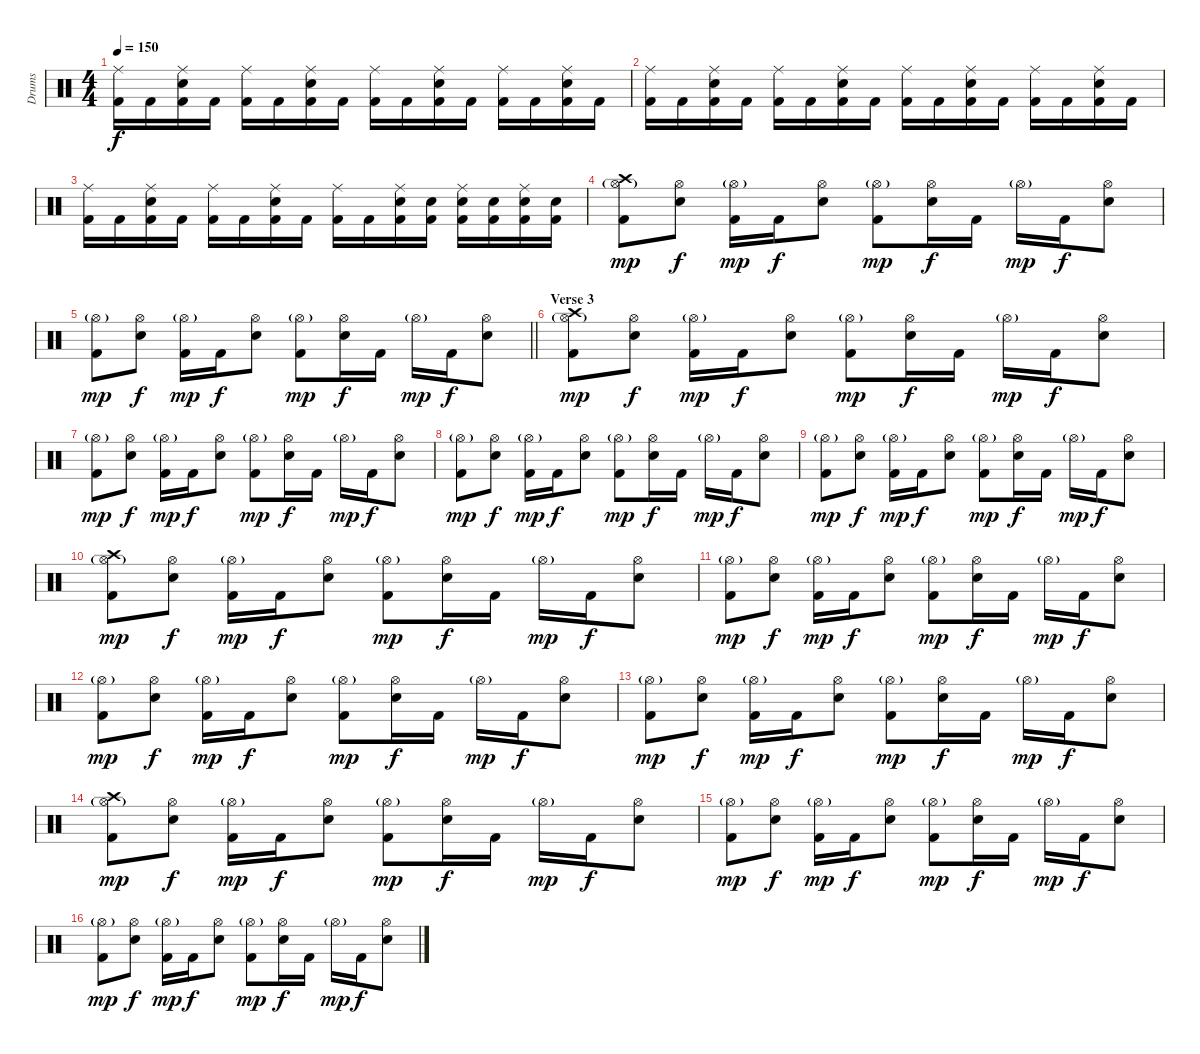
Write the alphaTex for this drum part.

\track ("Drums" "Drums") {instrument percussion}
\staff {score}
\articulation defaults
\ts (4 4)
\tempo 150
\clef neutral
\ks c
("Ride (middle)" "Kick (hit) 2").16{dy f} "Kick (hit) 2".16 ("Ride (middle)" "Snare (hit) 2" "Kick (hit) 2").16 "Kick (hit) 2".16 ("Ride (middle)" "Kick (hit) 2").16 "Kick (hit) 2".16 ("Ride (middle)" "Snare (hit) 2" "Kick (hit) 2").16 "Kick (hit) 2".16 ("Ride (middle)" "Kick (hit) 2").16 "Kick (hit) 2".16 ("Ride (middle)" "Snare (hit) 2" "Kick (hit) 2").16 "Kick (hit) 2".16 ("Ride (middle)" "Kick (hit) 2").16 "Kick (hit) 2".16 ("Ride (middle)" "Snare (hit) 2" "Kick (hit) 2").16 "Kick (hit) 2".16 |
("Ride (middle)" "Kick (hit) 2").16 "Kick (hit) 2".16 ("Ride (middle)" "Snare (hit) 2" "Kick (hit) 2").16 "Kick (hit) 2".16 ("Ride (middle)" "Kick (hit) 2").16 "Kick (hit) 2".16 ("Ride (middle)" "Snare (hit) 2" "Kick (hit) 2").16 "Kick (hit) 2".16 ("Ride (middle)" "Kick (hit) 2").16 "Kick (hit) 2".16 ("Ride (middle)" "Snare (hit) 2" "Kick (hit) 2").16 "Kick (hit) 2".16 ("Ride (middle)" "Kick (hit) 2").16 "Kick (hit) 2".16 ("Ride (middle)" "Snare (hit) 2" "Kick (hit) 2").16 "Kick (hit) 2".16 |
("Ride (middle)" "Kick (hit) 2").16 "Kick (hit) 2".16 ("Ride (middle)" "Snare (hit) 2" "Kick (hit) 2").16 "Kick (hit) 2".16 ("Ride (middle)" "Kick (hit) 2").16 "Kick (hit) 2".16 ("Ride (middle)" "Snare (hit) 2" "Kick (hit) 2").16 "Kick (hit) 2".16 ("Ride (middle)" "Kick (hit) 2").16 "Kick (hit) 2".16 ("Ride (middle)" "Snare (hit) 2" "Kick (hit) 2").16 ("Snare (hit) 2" "Kick (hit) 2").16 ("Ride (middle)" "Snare (hit) 2" "Kick (hit) 2").16 ("Snare (hit) 2" "Kick (hit) 2").16 ("Ride (middle)" "Snare (hit) 2" "Kick (hit) 2").16 ("Snare (hit) 2" "Kick (hit) 2").16 |
("Crash high (hit)" "Hi-Hat (open)"{g} "Kick (hit) 2").8{dy mp} ("Hi-Hat (open)" "Snare (hit) 2").8{dy f} ("Hi-Hat (open)"{g} "Kick (hit) 2").16{dy mp} "Kick (hit) 2".16{dy f} ("Hi-Hat (open)" "Snare (hit) 2").8 ("Hi-Hat (open)"{g} "Kick (hit) 2").8{dy mp} ("Hi-Hat (open)" "Snare (hit) 2").16{dy f} "Kick (hit) 2".16 "Hi-Hat (open)"{g}.16{dy mp} "Kick (hit) 2".16{dy f} ("Hi-Hat (open)" "Snare (hit) 2").8 |
\barLineRight lightlight
("Hi-Hat (open)"{g} "Kick (hit) 2").8{dy mp} ("Hi-Hat (open)" "Snare (hit) 2").8{dy f} ("Hi-Hat (open)"{g} "Kick (hit) 2").16{dy mp} "Kick (hit) 2".16{dy f} ("Hi-Hat (open)" "Snare (hit) 2").8 ("Hi-Hat (open)"{g} "Kick (hit) 2").8{dy mp} ("Hi-Hat (open)" "Snare (hit) 2").16{dy f} "Kick (hit) 2".16 "Hi-Hat (open)"{g}.16{dy mp} "Kick (hit) 2".16{dy f} ("Hi-Hat (open)" "Snare (hit) 2").8 |
\section ("" "Verse 3")
("Crash high (hit)" "Hi-Hat (open)"{g} "Kick (hit) 2").8{dy mp} ("Hi-Hat (open)" "Snare (hit) 2").8{dy f} ("Hi-Hat (open)"{g} "Kick (hit) 2").16{dy mp} "Kick (hit) 2".16{dy f} ("Hi-Hat (open)" "Snare (hit) 2").8 ("Hi-Hat (open)"{g} "Kick (hit) 2").8{dy mp} ("Hi-Hat (open)" "Snare (hit) 2").16{dy f} "Kick (hit) 2".16 "Hi-Hat (open)"{g}.16{dy mp} "Kick (hit) 2".16{dy f} ("Hi-Hat (open)" "Snare (hit) 2").8 |
("Hi-Hat (open)"{g} "Kick (hit) 2").8{dy mp} ("Hi-Hat (open)" "Snare (hit) 2").8{dy f} ("Hi-Hat (open)"{g} "Kick (hit) 2").16{dy mp} "Kick (hit) 2".16{dy f} ("Hi-Hat (open)" "Snare (hit) 2").8 ("Hi-Hat (open)"{g} "Kick (hit) 2").8{dy mp} ("Hi-Hat (open)" "Snare (hit) 2").16{dy f} "Kick (hit) 2".16 "Hi-Hat (open)"{g}.16{dy mp} "Kick (hit) 2".16{dy f} ("Hi-Hat (open)" "Snare (hit) 2").8 |
("Hi-Hat (open)"{g} "Kick (hit) 2").8{dy mp} ("Hi-Hat (open)" "Snare (hit) 2").8{dy f} ("Hi-Hat (open)"{g} "Kick (hit) 2").16{dy mp} "Kick (hit) 2".16{dy f} ("Hi-Hat (open)" "Snare (hit) 2").8 ("Hi-Hat (open)"{g} "Kick (hit) 2").8{dy mp} ("Hi-Hat (open)" "Snare (hit) 2").16{dy f} "Kick (hit) 2".16 "Hi-Hat (open)"{g}.16{dy mp} "Kick (hit) 2".16{dy f} ("Hi-Hat (open)" "Snare (hit) 2").8 |
("Hi-Hat (open)"{g} "Kick (hit) 2").8{dy mp} ("Hi-Hat (open)" "Snare (hit) 2").8{dy f} ("Hi-Hat (open)"{g} "Kick (hit) 2").16{dy mp} "Kick (hit) 2".16{dy f} ("Hi-Hat (open)" "Snare (hit) 2").8 ("Hi-Hat (open)"{g} "Kick (hit) 2").8{dy mp} ("Hi-Hat (open)" "Snare (hit) 2").16{dy f} "Kick (hit) 2".16 "Hi-Hat (open)"{g}.16{dy mp} "Kick (hit) 2".16{dy f} ("Hi-Hat (open)" "Snare (hit) 2").8 |
("Crash high (hit)" "Hi-Hat (open)"{g} "Kick (hit) 2").8{dy mp} ("Hi-Hat (open)" "Snare (hit) 2").8{dy f} ("Hi-Hat (open)"{g} "Kick (hit) 2").16{dy mp} "Kick (hit) 2".16{dy f} ("Hi-Hat (open)" "Snare (hit) 2").8 ("Hi-Hat (open)"{g} "Kick (hit) 2").8{dy mp} ("Hi-Hat (open)" "Snare (hit) 2").16{dy f} "Kick (hit) 2".16 "Hi-Hat (open)"{g}.16{dy mp} "Kick (hit) 2".16{dy f} ("Hi-Hat (open)" "Snare (hit) 2").8 |
("Hi-Hat (open)"{g} "Kick (hit) 2").8{dy mp} ("Hi-Hat (open)" "Snare (hit) 2").8{dy f} ("Hi-Hat (open)"{g} "Kick (hit) 2").16{dy mp} "Kick (hit) 2".16{dy f} ("Hi-Hat (open)" "Snare (hit) 2").8 ("Hi-Hat (open)"{g} "Kick (hit) 2").8{dy mp} ("Hi-Hat (open)" "Snare (hit) 2").16{dy f} "Kick (hit) 2".16 "Hi-Hat (open)"{g}.16{dy mp} "Kick (hit) 2".16{dy f} ("Hi-Hat (open)" "Snare (hit) 2").8 |
("Hi-Hat (open)"{g} "Kick (hit) 2").8{dy mp} ("Hi-Hat (open)" "Snare (hit) 2").8{dy f} ("Hi-Hat (open)"{g} "Kick (hit) 2").16{dy mp} "Kick (hit) 2".16{dy f} ("Hi-Hat (open)" "Snare (hit) 2").8 ("Hi-Hat (open)"{g} "Kick (hit) 2").8{dy mp} ("Hi-Hat (open)" "Snare (hit) 2").16{dy f} "Kick (hit) 2".16 "Hi-Hat (open)"{g}.16{dy mp} "Kick (hit) 2".16{dy f} ("Hi-Hat (open)" "Snare (hit) 2").8 |
("Hi-Hat (open)"{g} "Kick (hit) 2").8{dy mp} ("Hi-Hat (open)" "Snare (hit) 2").8{dy f} ("Hi-Hat (open)"{g} "Kick (hit) 2").16{dy mp} "Kick (hit) 2".16{dy f} ("Hi-Hat (open)" "Snare (hit) 2").8 ("Hi-Hat (open)"{g} "Kick (hit) 2").8{dy mp} ("Hi-Hat (open)" "Snare (hit) 2").16{dy f} "Kick (hit) 2".16 "Hi-Hat (open)"{g}.16{dy mp} "Kick (hit) 2".16{dy f} ("Hi-Hat (open)" "Snare (hit) 2").8 |
("Crash high (hit)" "Hi-Hat (open)"{g} "Kick (hit) 2").8{dy mp} ("Hi-Hat (open)" "Snare (hit) 2").8{dy f} ("Hi-Hat (open)"{g} "Kick (hit) 2").16{dy mp} "Kick (hit) 2".16{dy f} ("Hi-Hat (open)" "Snare (hit) 2").8 ("Hi-Hat (open)"{g} "Kick (hit) 2").8{dy mp} ("Hi-Hat (open)" "Snare (hit) 2").16{dy f} "Kick (hit) 2".16 "Hi-Hat (open)"{g}.16{dy mp} "Kick (hit) 2".16{dy f} ("Hi-Hat (open)" "Snare (hit) 2").8 |
("Hi-Hat (open)"{g} "Kick (hit) 2").8{dy mp} ("Hi-Hat (open)" "Snare (hit) 2").8{dy f} ("Hi-Hat (open)"{g} "Kick (hit) 2").16{dy mp} "Kick (hit) 2".16{dy f} ("Hi-Hat (open)" "Snare (hit) 2").8 ("Hi-Hat (open)"{g} "Kick (hit) 2").8{dy mp} ("Hi-Hat (open)" "Snare (hit) 2").16{dy f} "Kick (hit) 2".16 "Hi-Hat (open)"{g}.16{dy mp} "Kick (hit) 2".16{dy f} ("Hi-Hat (open)" "Snare (hit) 2").8 |
("Hi-Hat (open)"{g} "Kick (hit) 2").8{dy mp} ("Hi-Hat (open)" "Snare (hit) 2").8{dy f} ("Hi-Hat (open)"{g} "Kick (hit) 2").16{dy mp} "Kick (hit) 2".16{dy f} ("Hi-Hat (open)" "Snare (hit) 2").8 ("Hi-Hat (open)"{g} "Kick (hit) 2").8{dy mp} ("Hi-Hat (open)" "Snare (hit) 2").16{dy f} "Kick (hit) 2".16 "Hi-Hat (open)"{g}.16{dy mp} "Kick (hit) 2".16{dy f} ("Hi-Hat (open)" "Snare (hit) 2").8
